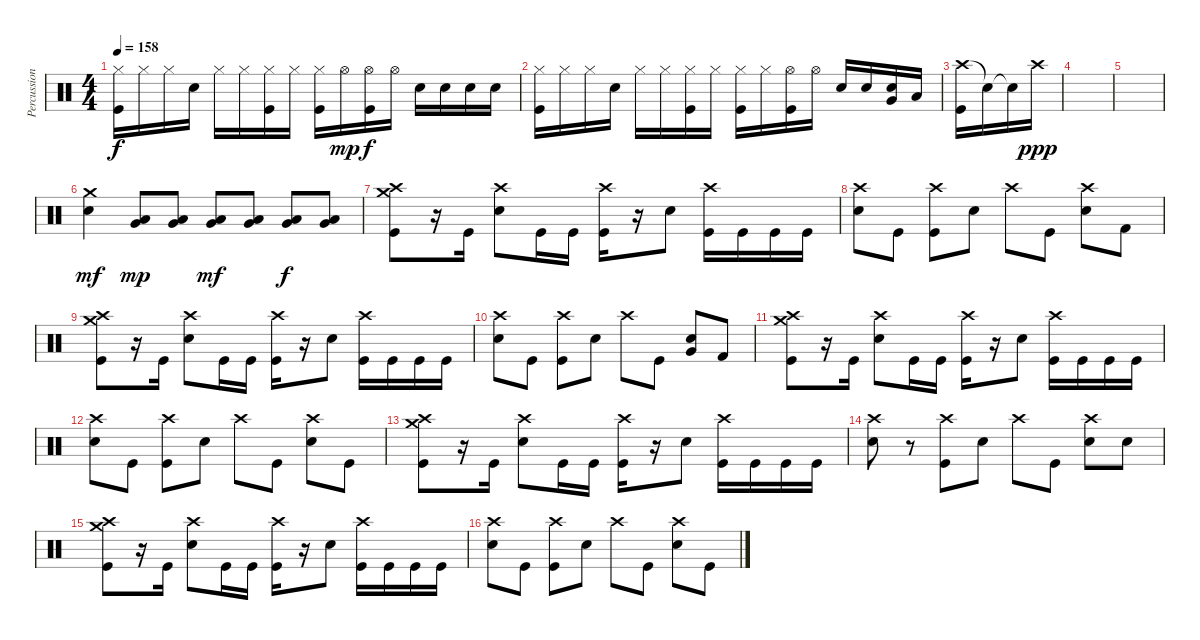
\track ("Percussion" "Percussion") {instrument percussion}
\staff {score}
\articulation defaults
\ts (4 4)
\tempo 158
\clef neutral
\ks c
("Hi-Hat (closed)" "Kick (hit)").16{dy f} "Hi-Hat (closed)".16 "Hi-Hat (closed)".16 "Snare (hit) 2".16 "Hi-Hat (closed)".16 "Hi-Hat (closed)".16 ("Hi-Hat (closed)" "Kick (hit)").16 "Hi-Hat (closed)".16 ("Hi-Hat (closed)" "Kick (hit)").16 "Hi-Hat (open)".16{dy mp} ("Hi-Hat (open)" "Kick (hit)").16{dy f} "Hi-Hat (open)".16 "Snare (hit) 2".16 "Snare (hit) 2".16 "Snare (hit) 2".16 "Snare (hit) 2".16 |
("Hi-Hat (closed)" "Kick (hit)").16 "Hi-Hat (closed)".16 "Hi-Hat (closed)".16 "Snare (hit) 2".16 "Hi-Hat (closed)".16 "Hi-Hat (closed)".16 ("Hi-Hat (closed)" "Kick (hit)").16 "Hi-Hat (closed)".16 ("Hi-Hat (closed)" "Kick (hit)").16 "Hi-Hat (closed)".16 ("Hi-Hat (open)" "Kick (hit)").16 "Hi-Hat (open)".16 "Snare (hit) 2".16 "Snare (hit) 2".16 ("Very Low Tom (hit)" "Snare (hit) 2").16 "Low Floor Tom (hit)".16 |
("Crash high (hit)" "Kick (hit)").16 "Snare (hit)"{t}.16 "Snare (hit)"{t}.16 "Crash high (hit)".16{dy ppp} |
|
|
("Crash medium (hit)" "Snare (hit) 2").4{dy mf} ("Low Tom (hit)" "Very Low Tom (hit)").8{dy mp} ("Low Tom (hit)" "Very Low Tom (hit)").8 ("Low Tom (hit)" "Very Low Tom (hit)").8{dy mf} ("Low Tom (hit)" "Very Low Tom (hit)").8 ("Low Tom (hit)" "Very Low Tom (hit)").8{dy f} ("Low Tom (hit)" "Very Low Tom (hit)").8 |
("Crash high (hit)" "Crash medium (hit)" "Kick (hit)").8 r.16 "Kick (hit)".16 ("Crash high (hit)" "Snare (hit) 2").8 "Kick (hit)".16 "Kick (hit)".16 ("Crash high (hit)" "Kick (hit)").16 r.16 "Snare (hit) 2".8 ("Crash high (hit)" "Kick (hit)").16 "Kick (hit)".16 "Kick (hit)".16 "Kick (hit)".16 |
("Crash high (hit)" "Snare (hit) 2").8 "Kick (hit)".8 ("Crash high (hit)" "Kick (hit)").8 "Snare (hit) 2".8 "Crash high (hit)".8 "Kick (hit)".8 ("Crash high (hit)" "Snare (hit) 2").8 "Kick (hit) 2".8 |
("Crash high (hit)" "Crash medium (hit)" "Kick (hit)").8 r.16 "Kick (hit)".16 ("Crash high (hit)" "Snare (hit) 2").8 "Kick (hit)".16 "Kick (hit)".16 ("Crash high (hit)" "Kick (hit)").16 r.16 "Snare (hit) 2".8 ("Crash high (hit)" "Kick (hit)").16 "Kick (hit)".16 "Kick (hit)".16 "Kick (hit)".16 |
("Crash high (hit)" "Snare (hit) 2").8 "Kick (hit)".8 ("Crash high (hit)" "Kick (hit)").8 "Snare (hit) 2".8 "Crash high (hit)".8 "Kick (hit)".8 ("Very Low Tom (hit)" "Snare (hit) 2").8 "Kick (hit) 2".8 |
("Crash high (hit)" "Crash medium (hit)" "Kick (hit)").8 r.16 "Kick (hit)".16 ("Crash high (hit)" "Snare (hit) 2").8 "Kick (hit)".16 "Kick (hit)".16 ("Crash high (hit)" "Kick (hit)").16 r.16 "Snare (hit) 2".8 ("Crash high (hit)" "Kick (hit)").16 "Kick (hit)".16 "Kick (hit)".16 "Kick (hit)".16 |
("Crash high (hit)" "Snare (hit) 2").8 "Kick (hit)".8 ("Crash high (hit)" "Kick (hit)").8 "Snare (hit) 2".8 "Crash high (hit)".8 "Kick (hit)".8 ("Crash high (hit)" "Snare (hit) 2").8 "Kick (hit)".8 |
("Crash high (hit)" "Crash medium (hit)" "Kick (hit)").8 r.16 "Kick (hit)".16 ("Crash high (hit)" "Snare (hit) 2").8 "Kick (hit)".16 "Kick (hit)".16 ("Crash high (hit)" "Kick (hit)").16 r.16 "Snare (hit) 2".8 ("Crash high (hit)" "Kick (hit)").16 "Kick (hit)".16 "Kick (hit)".16 "Kick (hit)".16 |
("Crash high (hit)" "Snare (hit) 2").8 r.8 ("Crash high (hit)" "Kick (hit)").8 "Snare (hit) 2".8 "Crash high (hit)".8 "Kick (hit)".8 ("Crash high (hit)" "Snare (hit) 2").8 "Snare (hit) 2".8 |
("Crash high (hit)" "Crash medium (hit)" "Kick (hit)").8 r.16 "Kick (hit)".16 ("Crash high (hit)" "Snare (hit) 2").8 "Kick (hit)".16 "Kick (hit)".16 ("Crash high (hit)" "Kick (hit)").16 r.16 "Snare (hit) 2".8 ("Crash high (hit)" "Kick (hit)").16 "Kick (hit)".16 "Kick (hit)".16 "Kick (hit)".16 |
("Crash high (hit)" "Snare (hit) 2").8 "Kick (hit)".8 ("Crash high (hit)" "Kick (hit)").8 "Snare (hit) 2".8 "Crash high (hit)".8 "Kick (hit)".8 ("Crash high (hit)" "Snare (hit) 2").8 "Kick (hit)".8
